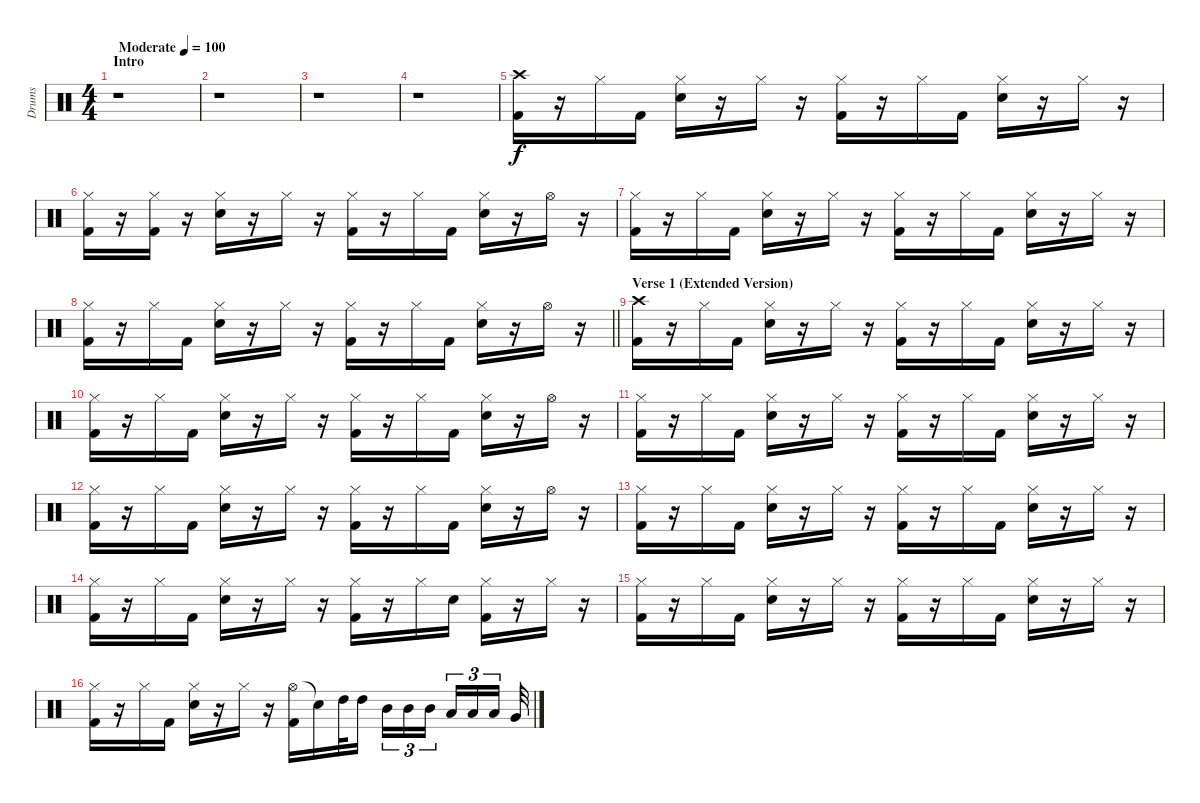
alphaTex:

\track ("Drums" "Drums") {instrument percussion}
\staff {score}
\articulation defaults
\ts (4 4)
\section ("" "Intro")
\tempo (100 "Moderate")
\clef neutral
\ks c
r.1{dy f} |
r.1 |
r.1 |
r.1 |
("Crash high (hit)" "Kick (hit) 2").16 r.16 "Hi-Hat (closed)".16 "Kick (hit) 2".16 ("Hi-Hat (closed)" "Electric Snare (hit)").16 r.16 "Hi-Hat (closed)".16 r.16 ("Hi-Hat (closed)" "Kick (hit) 2").16 r.16 "Hi-Hat (closed)".16 "Kick (hit) 2".16 ("Hi-Hat (closed)" "Electric Snare (hit)").16 r.16 "Hi-Hat (closed)".16 r.16 |
("Hi-Hat (closed)" "Kick (hit) 2").16 r.16 ("Hi-Hat (closed)" "Kick (hit) 2").16 r.16 ("Hi-Hat (closed)" "Electric Snare (hit)").16 r.16 "Hi-Hat (closed)".16 r.16 ("Hi-Hat (closed)" "Kick (hit) 2").16 r.16 "Hi-Hat (closed)".16 "Kick (hit) 2".16 ("Hi-Hat (closed)" "Electric Snare (hit)").16 r.16 "Hi-Hat (open)".16 r.16 |
("Hi-Hat (closed)" "Kick (hit) 2").16 r.16 "Hi-Hat (closed)".16 "Kick (hit) 2".16 ("Hi-Hat (closed)" "Electric Snare (hit)").16 r.16 "Hi-Hat (closed)".16 r.16 ("Hi-Hat (closed)" "Kick (hit) 2").16 r.16 "Hi-Hat (closed)".16 "Kick (hit) 2".16 ("Hi-Hat (closed)" "Electric Snare (hit)").16 r.16 "Hi-Hat (closed)".16 r.16 |
\barLineRight lightlight
("Hi-Hat (closed)" "Kick (hit) 2").16 r.16 "Hi-Hat (closed)".16 "Kick (hit) 2".16 ("Hi-Hat (closed)" "Electric Snare (hit)").16 r.16 "Hi-Hat (closed)".16 r.16 ("Hi-Hat (closed)" "Kick (hit) 2").16 r.16 "Hi-Hat (closed)".16 "Kick (hit) 2".16 ("Hi-Hat (closed)" "Electric Snare (hit)").16 r.16 "Hi-Hat (open)".16 r.16 |
\section ("" "Verse 1 (Extended Version)")
("Crash high (hit)" "Kick (hit) 2").16 r.16 "Hi-Hat (closed)".16 "Kick (hit) 2".16 ("Hi-Hat (closed)" "Electric Snare (hit)").16 r.16 "Hi-Hat (closed)".16 r.16 ("Hi-Hat (closed)" "Kick (hit) 2").16 r.16 "Hi-Hat (closed)".16 "Kick (hit) 2".16 ("Hi-Hat (closed)" "Electric Snare (hit)").16 r.16 "Hi-Hat (closed)".16 r.16 |
("Hi-Hat (closed)" "Kick (hit) 2").16 r.16 "Hi-Hat (closed)".16 "Kick (hit) 2".16 ("Hi-Hat (closed)" "Electric Snare (hit)").16 r.16 "Hi-Hat (closed)".16 r.16 ("Hi-Hat (closed)" "Kick (hit) 2").16 r.16 "Hi-Hat (closed)".16 "Kick (hit) 2".16 ("Hi-Hat (closed)" "Electric Snare (hit)").16 r.16 "Hi-Hat (open)".16 r.16 |
("Hi-Hat (closed)" "Kick (hit) 2").16 r.16 "Hi-Hat (closed)".16 "Kick (hit) 2".16 ("Hi-Hat (closed)" "Electric Snare (hit)").16 r.16 "Hi-Hat (closed)".16 r.16 ("Hi-Hat (closed)" "Kick (hit) 2").16 r.16 "Hi-Hat (closed)".16 "Kick (hit) 2".16 ("Hi-Hat (closed)" "Electric Snare (hit)").16 r.16 "Hi-Hat (closed)".16 r.16 |
("Hi-Hat (closed)" "Kick (hit) 2").16 r.16 "Hi-Hat (closed)".16 "Kick (hit) 2".16 ("Hi-Hat (closed)" "Electric Snare (hit)").16 r.16 "Hi-Hat (closed)".16 r.16 ("Hi-Hat (closed)" "Kick (hit) 2").16 r.16 "Hi-Hat (closed)".16 "Kick (hit) 2".16 ("Hi-Hat (closed)" "Electric Snare (hit)").16 r.16 "Hi-Hat (open)".16 r.16 |
("Hi-Hat (closed)" "Kick (hit) 2").16 r.16 "Hi-Hat (closed)".16 "Kick (hit) 2".16 ("Hi-Hat (closed)" "Electric Snare (hit)").16 r.16 "Hi-Hat (closed)".16 r.16 ("Hi-Hat (closed)" "Kick (hit) 2").16 r.16 "Hi-Hat (closed)".16 "Kick (hit) 2".16 ("Hi-Hat (closed)" "Electric Snare (hit)").16 r.16 "Hi-Hat (closed)".16 r.16 |
("Hi-Hat (closed)" "Kick (hit) 2").16 r.16 "Hi-Hat (closed)".16 "Kick (hit) 2".16 ("Hi-Hat (closed)" "Electric Snare (hit)").16 r.16 "Hi-Hat (closed)".16 r.16 ("Hi-Hat (closed)" "Kick (hit) 2").16 r.16 "Hi-Hat (closed)".16 "Electric Snare (hit)".16 ("Hi-Hat (closed)" "Kick (hit) 2").16 r.16 "Hi-Hat (closed)".16 r.16 |
("Hi-Hat (closed)" "Kick (hit) 2").16 r.16 "Hi-Hat (closed)".16 "Kick (hit) 2".16 ("Hi-Hat (closed)" "Electric Snare (hit)").16 r.16 "Hi-Hat (closed)".16 r.16 ("Hi-Hat (closed)" "Kick (hit) 2").16 r.16 "Hi-Hat (closed)".16 "Kick (hit) 2".16 ("Hi-Hat (closed)" "Electric Snare (hit)").16 r.16 "Hi-Hat (closed)".16 r.16 |
("Hi-Hat (closed)" "Kick (hit) 2").16 r.16 "Hi-Hat (closed)".16 "Kick (hit) 2".16 ("Hi-Hat (closed)" "Electric Snare (hit)").16 r.16 "Hi-Hat (closed)".16 r.16 ("Hi-Hat (open)" "Kick (hit) 2").16 "Snare (hit)"{t}.16 "High Tom (hit)".32 "High Tom (hit)".16{beam splitsecondary} "Mid Tom (hit)".16{tu (3 2)} "Mid Tom (hit)".16{tu (3 2)} "Mid Tom (hit)".16{tu (3 2) beam splitsecondary} "Low Tom (hit)".16{tu (3 2)} "Low Tom (hit)".16{tu (3 2)} "Low Tom (hit)".16{tu (3 2) beam splitsecondary} "Very Low Tom (hit)".32
